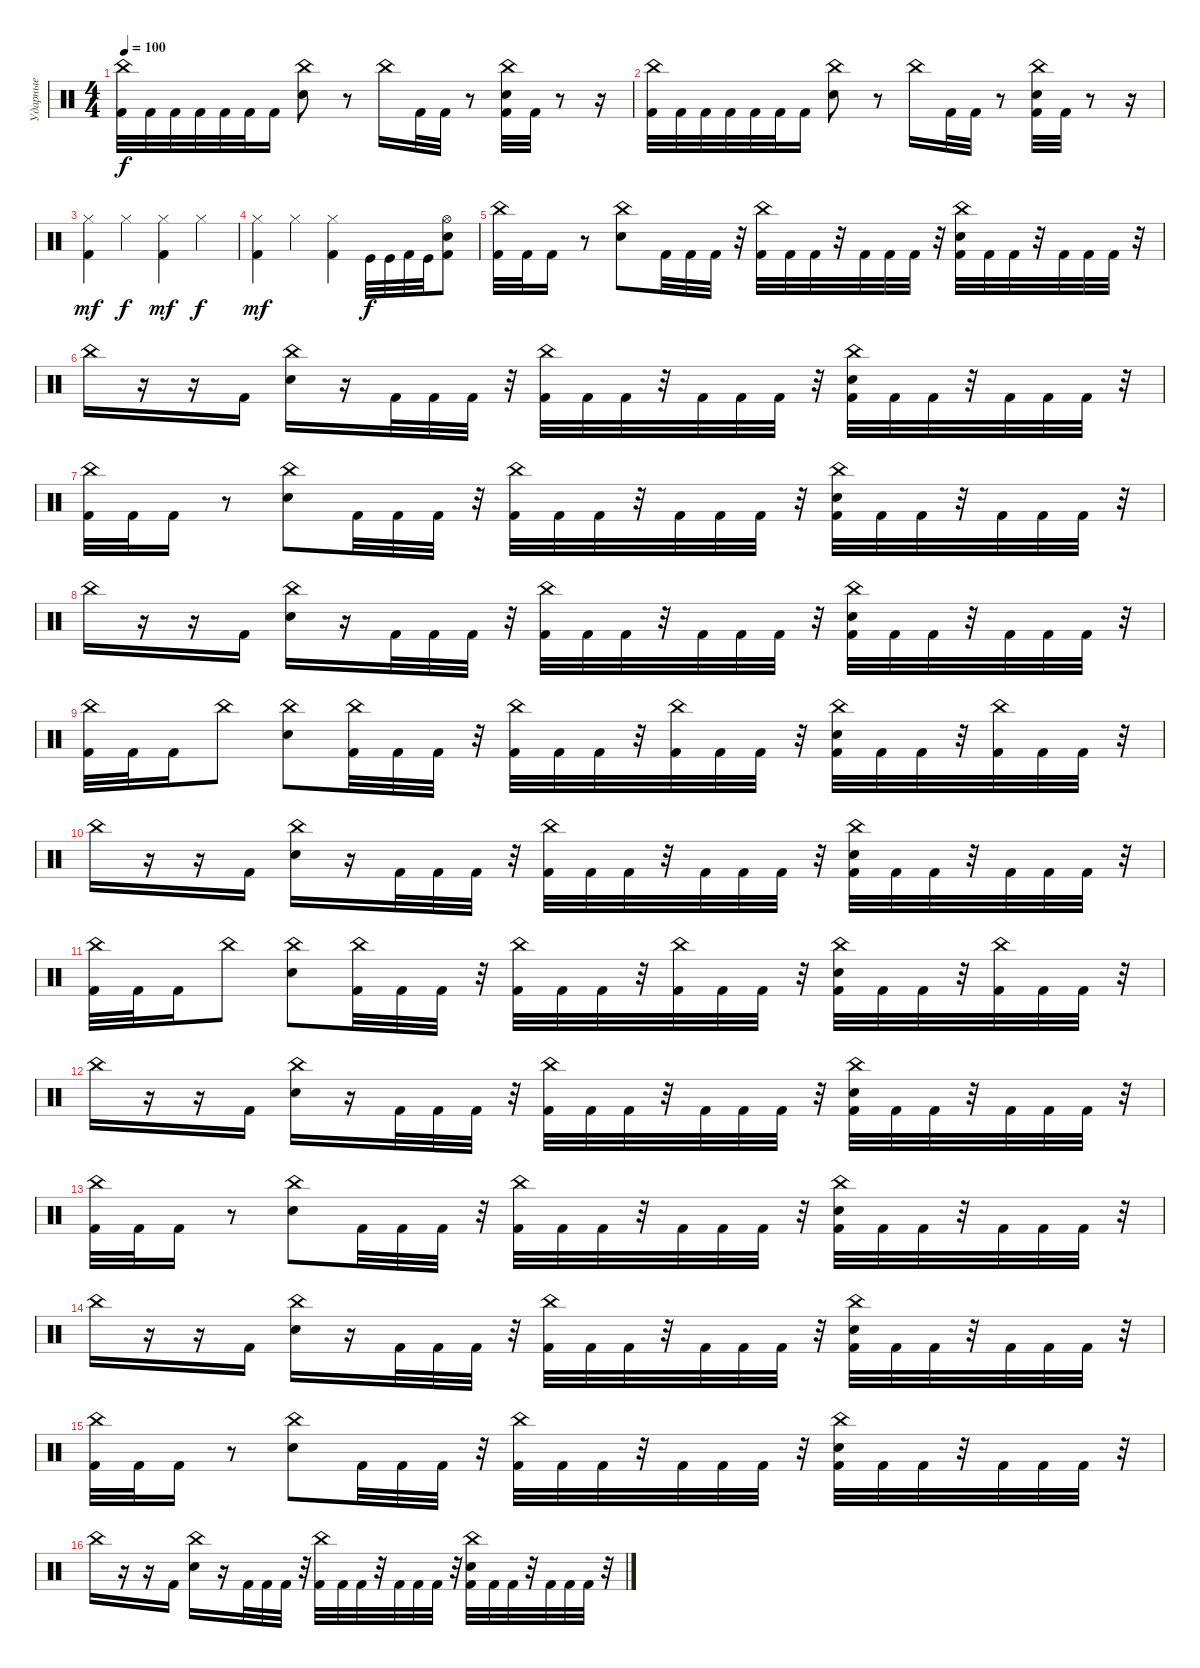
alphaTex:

\track ("Ударные" "Ударные") {instrument percussion}
\staff {score}
\articulation defaults
\ts (4 4)
\tempo 100
\clef neutral
\ks c
("China (hit)" "Kick (hit) 2").32{dy f} "Kick (hit) 2".32 "Kick (hit) 2".32 "Kick (hit) 2".32 "Kick (hit) 2".32 "Kick (hit) 2".32 "Kick (hit) 2".16 ("China (hit)" "Electric Snare (hit)").8 r.8 "China (hit)".16 "Kick (hit) 2".32 "Kick (hit) 2".32 r.8 ("China (hit)" "Electric Snare (hit)" "Kick (hit) 2").32 "Kick (hit) 2".32 r.8 r.16 |
("China (hit)" "Kick (hit) 2").32 "Kick (hit) 2".32 "Kick (hit) 2".32 "Kick (hit) 2".32 "Kick (hit) 2".32 "Kick (hit) 2".32 "Kick (hit) 2".16 ("China (hit)" "Electric Snare (hit)").8 r.8 "China (hit)".16 "Kick (hit) 2".32 "Kick (hit) 2".32 r.8 ("China (hit)" "Electric Snare (hit)" "Kick (hit) 2").32 "Kick (hit) 2".32 r.8 r.16 |
\ks aminor
("Hi-Hat (closed)" "Kick (hit) 2").4{dy mf} "Hi-Hat (closed)".4{dy f} ("Hi-Hat (closed)" "Kick (hit) 2").4{dy mf} "Hi-Hat (closed)".4{dy f} |
\ks c
("Hi-Hat (closed)" "Kick (hit) 2").4{dy mf} "Hi-Hat (closed)".4 ("Hi-Hat (closed)" "Kick (hit) 2").4 "Kick (hit)".32{dy f} "Kick (hit)".32 "Kick (hit) 2".32 "Kick (hit)".32 ("Snare (hit) 2" "Hi-Hat (open)" "Kick (hit) 2").8 |
("China (hit)" "Kick (hit) 2").32 "Kick (hit) 2".32 "Kick (hit) 2".16 r.8 ("China (hit)" "Electric Snare (hit)").8 "Kick (hit) 2".32 "Kick (hit) 2".32 "Kick (hit) 2".32 r.32 ("China (hit)" "Kick (hit) 2").32 "Kick (hit) 2".32 "Kick (hit) 2".32 r.32 "Kick (hit) 2".32 "Kick (hit) 2".32 "Kick (hit) 2".32 r.32 ("China (hit)" "Electric Snare (hit)" "Kick (hit) 2").32 "Kick (hit) 2".32 "Kick (hit) 2".32 r.32 "Kick (hit) 2".32 "Kick (hit) 2".32 "Kick (hit) 2".32 r.32 |
"China (hit)".16 r.16 r.16 "Kick (hit) 2".16 ("China (hit)" "Electric Snare (hit)").16 r.16 "Kick (hit) 2".32 "Kick (hit) 2".32 "Kick (hit) 2".32 r.32 ("China (hit)" "Kick (hit) 2").32 "Kick (hit) 2".32 "Kick (hit) 2".32 r.32 "Kick (hit) 2".32 "Kick (hit) 2".32 "Kick (hit) 2".32 r.32 ("China (hit)" "Electric Snare (hit)" "Kick (hit) 2").32 "Kick (hit) 2".32 "Kick (hit) 2".32 r.32 "Kick (hit) 2".32 "Kick (hit) 2".32 "Kick (hit) 2".32 r.32 |
("China (hit)" "Kick (hit) 2").32 "Kick (hit) 2".32 "Kick (hit) 2".16 r.8 ("China (hit)" "Electric Snare (hit)").8 "Kick (hit) 2".32 "Kick (hit) 2".32 "Kick (hit) 2".32 r.32 ("China (hit)" "Kick (hit) 2").32 "Kick (hit) 2".32 "Kick (hit) 2".32 r.32 "Kick (hit) 2".32 "Kick (hit) 2".32 "Kick (hit) 2".32 r.32 ("China (hit)" "Electric Snare (hit)" "Kick (hit) 2").32 "Kick (hit) 2".32 "Kick (hit) 2".32 r.32 "Kick (hit) 2".32 "Kick (hit) 2".32 "Kick (hit) 2".32 r.32 |
"China (hit)".16 r.16 r.16 "Kick (hit) 2".16 ("China (hit)" "Electric Snare (hit)").16 r.16 "Kick (hit) 2".32 "Kick (hit) 2".32 "Kick (hit) 2".32 r.32 ("China (hit)" "Kick (hit) 2").32 "Kick (hit) 2".32 "Kick (hit) 2".32 r.32 "Kick (hit) 2".32 "Kick (hit) 2".32 "Kick (hit) 2".32 r.32 ("China (hit)" "Electric Snare (hit)" "Kick (hit) 2").32 "Kick (hit) 2".32 "Kick (hit) 2".32 r.32 "Kick (hit) 2".32 "Kick (hit) 2".32 "Kick (hit) 2".32 r.32 |
("China (hit)" "Kick (hit) 2").32 "Kick (hit) 2".32 "Kick (hit) 2".16 "China (hit)".8 ("China (hit)" "Electric Snare (hit)").8 ("China (hit)" "Kick (hit) 2").32 "Kick (hit) 2".32 "Kick (hit) 2".32 r.32 ("China (hit)" "Kick (hit) 2").32 "Kick (hit) 2".32 "Kick (hit) 2".32 r.32 ("China (hit)" "Kick (hit) 2").32 "Kick (hit) 2".32 "Kick (hit) 2".32 r.32 ("China (hit)" "Electric Snare (hit)" "Kick (hit) 2").32 "Kick (hit) 2".32 "Kick (hit) 2".32 r.32 ("China (hit)" "Kick (hit) 2").32 "Kick (hit) 2".32 "Kick (hit) 2".32 r.32 |
"China (hit)".16 r.16 r.16 "Kick (hit) 2".16 ("China (hit)" "Electric Snare (hit)").16 r.16 "Kick (hit) 2".32 "Kick (hit) 2".32 "Kick (hit) 2".32 r.32 ("China (hit)" "Kick (hit) 2").32 "Kick (hit) 2".32 "Kick (hit) 2".32 r.32 "Kick (hit) 2".32 "Kick (hit) 2".32 "Kick (hit) 2".32 r.32 ("China (hit)" "Electric Snare (hit)" "Kick (hit) 2").32 "Kick (hit) 2".32 "Kick (hit) 2".32 r.32 "Kick (hit) 2".32 "Kick (hit) 2".32 "Kick (hit) 2".32 r.32 |
("China (hit)" "Kick (hit) 2").32 "Kick (hit) 2".32 "Kick (hit) 2".16 "China (hit)".8 ("China (hit)" "Electric Snare (hit)").8 ("China (hit)" "Kick (hit) 2").32 "Kick (hit) 2".32 "Kick (hit) 2".32 r.32 ("China (hit)" "Kick (hit) 2").32 "Kick (hit) 2".32 "Kick (hit) 2".32 r.32 ("China (hit)" "Kick (hit) 2").32 "Kick (hit) 2".32 "Kick (hit) 2".32 r.32 ("China (hit)" "Electric Snare (hit)" "Kick (hit) 2").32 "Kick (hit) 2".32 "Kick (hit) 2".32 r.32 ("China (hit)" "Kick (hit) 2").32 "Kick (hit) 2".32 "Kick (hit) 2".32 r.32 |
"China (hit)".16 r.16 r.16 "Kick (hit) 2".16 ("China (hit)" "Electric Snare (hit)").16 r.16 "Kick (hit) 2".32 "Kick (hit) 2".32 "Kick (hit) 2".32 r.32 ("China (hit)" "Kick (hit) 2").32 "Kick (hit) 2".32 "Kick (hit) 2".32 r.32 "Kick (hit) 2".32 "Kick (hit) 2".32 "Kick (hit) 2".32 r.32 ("China (hit)" "Electric Snare (hit)" "Kick (hit) 2").32 "Kick (hit) 2".32 "Kick (hit) 2".32 r.32 "Kick (hit) 2".32 "Kick (hit) 2".32 "Kick (hit) 2".32 r.32 |
("China (hit)" "Kick (hit) 2").32 "Kick (hit) 2".32 "Kick (hit) 2".16 r.8 ("China (hit)" "Electric Snare (hit)").8 "Kick (hit) 2".32 "Kick (hit) 2".32 "Kick (hit) 2".32 r.32 ("China (hit)" "Kick (hit) 2").32 "Kick (hit) 2".32 "Kick (hit) 2".32 r.32 "Kick (hit) 2".32 "Kick (hit) 2".32 "Kick (hit) 2".32 r.32 ("China (hit)" "Electric Snare (hit)" "Kick (hit) 2").32 "Kick (hit) 2".32 "Kick (hit) 2".32 r.32 "Kick (hit) 2".32 "Kick (hit) 2".32 "Kick (hit) 2".32 r.32 |
"China (hit)".16 r.16 r.16 "Kick (hit) 2".16 ("China (hit)" "Electric Snare (hit)").16 r.16 "Kick (hit) 2".32 "Kick (hit) 2".32 "Kick (hit) 2".32 r.32 ("China (hit)" "Kick (hit) 2").32 "Kick (hit) 2".32 "Kick (hit) 2".32 r.32 "Kick (hit) 2".32 "Kick (hit) 2".32 "Kick (hit) 2".32 r.32 ("China (hit)" "Electric Snare (hit)" "Kick (hit) 2").32 "Kick (hit) 2".32 "Kick (hit) 2".32 r.32 "Kick (hit) 2".32 "Kick (hit) 2".32 "Kick (hit) 2".32 r.32 |
("China (hit)" "Kick (hit) 2").32 "Kick (hit) 2".32 "Kick (hit) 2".16 r.8 ("China (hit)" "Electric Snare (hit)").8 "Kick (hit) 2".32 "Kick (hit) 2".32 "Kick (hit) 2".32 r.32 ("China (hit)" "Kick (hit) 2").32 "Kick (hit) 2".32 "Kick (hit) 2".32 r.32 "Kick (hit) 2".32 "Kick (hit) 2".32 "Kick (hit) 2".32 r.32 ("China (hit)" "Electric Snare (hit)" "Kick (hit) 2").32 "Kick (hit) 2".32 "Kick (hit) 2".32 r.32 "Kick (hit) 2".32 "Kick (hit) 2".32 "Kick (hit) 2".32 r.32 |
"China (hit)".16 r.16 r.16 "Kick (hit) 2".16 ("China (hit)" "Electric Snare (hit)").16 r.16 "Kick (hit) 2".32 "Kick (hit) 2".32 "Kick (hit) 2".32 r.32 ("China (hit)" "Kick (hit) 2").32 "Kick (hit) 2".32 "Kick (hit) 2".32 r.32 "Kick (hit) 2".32 "Kick (hit) 2".32 "Kick (hit) 2".32 r.32 ("China (hit)" "Electric Snare (hit)" "Kick (hit) 2").32 "Kick (hit) 2".32 "Kick (hit) 2".32 r.32 "Kick (hit) 2".32 "Kick (hit) 2".32 "Kick (hit) 2".32 r.32
